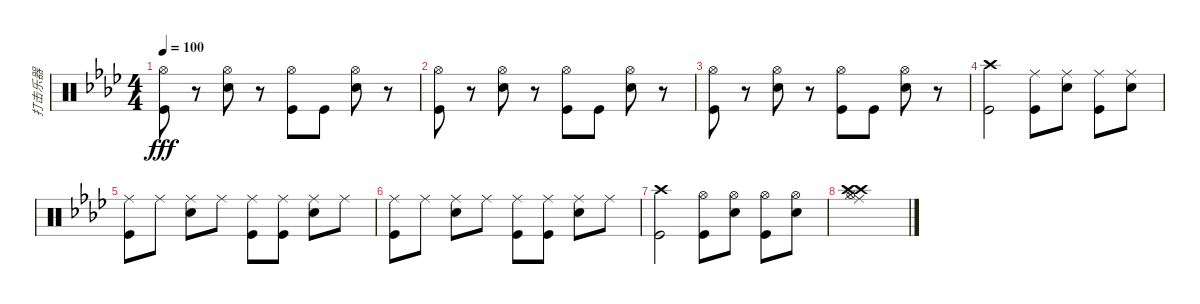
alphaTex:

\track ("打击乐器" "打击乐器") {instrument percussion}
\staff {score}
\articulation defaults
\ts (4 4)
\tempo 100
\clef neutral
\ks ab
("Hi-Hat (open)" "Kick (hit)").8{dy fff} r.8 ("Hi-Hat (open)" "Snare (hit) 2").8 r.8 ("Hi-Hat (open)" "Kick (hit)").8 "Kick (hit)".8 ("Hi-Hat (open)" "Snare (hit) 2").8 r.8 |
("Hi-Hat (open)" "Kick (hit)").8 r.8 ("Hi-Hat (open)" "Snare (hit) 2").8 r.8 ("Hi-Hat (open)" "Kick (hit)").8 "Kick (hit)".8 ("Hi-Hat (open)" "Snare (hit) 2").8 r.8 |
("Hi-Hat (open)" "Kick (hit)").8 r.8 ("Hi-Hat (open)" "Snare (hit) 2").8 r.8 ("Hi-Hat (open)" "Kick (hit)").8 "Kick (hit)".8 ("Hi-Hat (open)" "Snare (hit) 2").8 r.8 |
("Crash high (hit)" "Kick (hit)").2 ("Kick (hit)" "Ride (middle)").8 ("Snare (hit) 2" "Ride (middle)").8 ("Kick (hit)" "Ride (middle)").8 ("Snare (hit) 2" "Ride (middle)").8 |
("Ride (middle)" "Kick (hit)").8 "Ride (middle)".8 ("Ride (middle)" "Snare (hit) 2").8 "Ride (middle)".8 ("Ride (middle)" "Kick (hit)").8 ("Kick (hit)" "Ride (middle)").8 ("Ride (middle)" "Snare (hit) 2").8 "Ride (middle)".8 |
("Ride (middle)" "Kick (hit)").8 "Ride (middle)".8 ("Ride (middle)" "Snare (hit) 2").8 "Ride (middle)".8 ("Ride (middle)" "Kick (hit)").8 ("Kick (hit)" "Ride (middle)").8 ("Ride (middle)" "Snare (hit) 2").8 "Ride (middle)".8 |
("Crash high (hit)" "Kick (hit)").2 ("Kick (hit)" "Hi-Hat (open)").8 ("Snare (hit) 2" "Hi-Hat (open)").8 ("Kick (hit)" "Hi-Hat (open)").8 ("Snare (hit) 2" "Hi-Hat (open)").8 |
("Hi-Hat (open)" "Crash high (hit)" "Crash high (hit)" "Ride (middle)" "Hi-Hat (closed)").1
